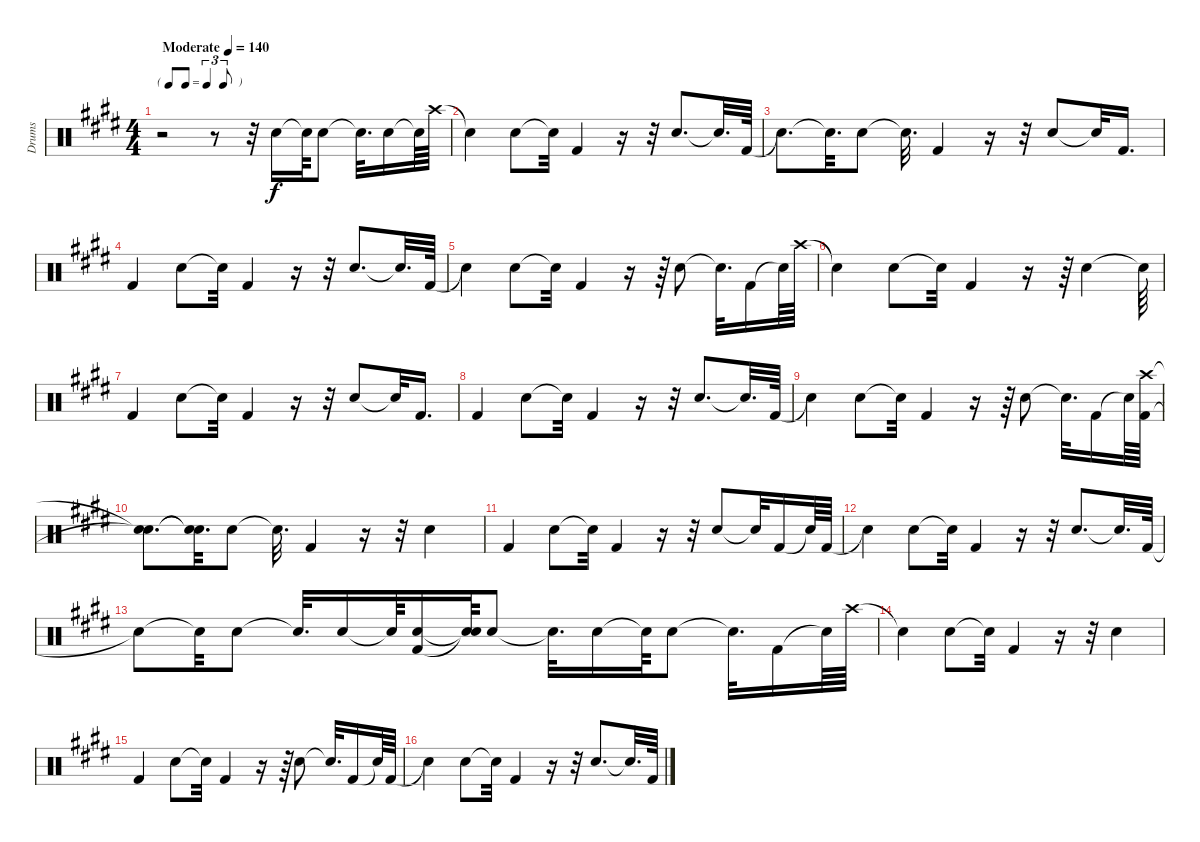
\track ("Drums" "Drums") {instrument percussion}
\staff {score}
\articulation defaults
\ts (4 4)
\tf triplet8th
\tempo (140 "Moderate")
\clef neutral
\ks e
r.2{dy f} r.8 r.32 "Snare (hit) 2".16 "Snare (hit)"{t}.64 "Snare (hit) 2".8 "Snare (hit)"{t}.32{d} "Snare (hit) 2".16 "Snare (hit)"{t}.64 "Crash high (hit)".64 |
"Snare (hit)"{t}.4 "Snare (hit) 2".8 "Snare (hit)"{t}.32 "Kick (hit) 2".4 r.16 r.32 "Snare (hit) 2".8{d} "Snare (hit)"{t}.32{d} "Kick (hit) 2".64 |
"Snare (hit)"{t}.8{d} "Snare (hit)"{t}.32{d} "Snare (hit) 2".8 "Snare (hit)"{t}.32{d} "Kick (hit) 2".4 r.16 r.32 "Snare (hit) 2".8 "Snare (hit)"{t}.32 "Kick (hit) 2".16{d} |
"Kick (hit) 2".4 "Snare (hit) 2".8 "Snare (hit)"{t}.32 "Kick (hit) 2".4 r.16 r.32 "Snare (hit) 2".8{d} "Snare (hit)"{t}.32{d} "Kick (hit) 2".64 |
"Snare (hit)"{t}.4 "Snare (hit) 2".8 "Snare (hit)"{t}.32 "Kick (hit) 2".4 r.16 r.64 "Snare (hit) 2".8 "Snare (hit)"{t}.32{d} "Kick (hit) 2".16 "Snare (hit)"{t}.64 "Crash high (hit)".64 |
"Snare (hit)"{t}.4 "Snare (hit) 2".8 "Snare (hit)"{t}.32 "Kick (hit) 2".4 r.16 r.64 "Snare (hit) 2".4 "Snare (hit)"{t}.64 |
"Kick (hit) 2".4 "Snare (hit) 2".8 "Snare (hit)"{t}.32 "Kick (hit) 2".4 r.16 r.32 "Snare (hit) 2".8 "Snare (hit)"{t}.32 "Kick (hit) 2".16{d} |
"Kick (hit) 2".4 "Snare (hit) 2".8 "Snare (hit)"{t}.32 "Kick (hit) 2".4 r.16 r.32 "Snare (hit) 2".8{d} "Snare (hit)"{t}.32{d} "Kick (hit) 2".64 |
"Snare (hit)"{t}.4 "Snare (hit) 2".8 "Snare (hit)"{t}.32 "Kick (hit) 2".4 r.16 r.64 "Snare (hit) 2".8 "Snare (hit)"{t}.32{d} "Kick (hit) 2".16 "Snare (hit)"{t}.64 ("Kick (hit) 2" "Crash high (hit)").64 |
("Snare (hit)"{t} "Snare (hit)"{t}).8{d} ("Snare (hit)"{t} "Snare (hit)"{t}).32{d} "Snare (hit) 2".8 "Snare (hit)"{t}.32{d} "Kick (hit) 2".4 r.16 r.32 "Snare (hit) 2".4 |
"Kick (hit) 2".4 "Snare (hit) 2".8 "Snare (hit)"{t}.32 "Kick (hit) 2".4 r.16 r.32 "Snare (hit) 2".8 "Snare (hit)"{t}.32 "Kick (hit) 2".16 "Snare (hit)"{t}.64 "Kick (hit) 2".64 |
"Snare (hit)"{t}.4 "Snare (hit) 2".8 "Snare (hit)"{t}.32 "Kick (hit) 2".4 r.16 r.32 "Snare (hit) 2".8{d} "Snare (hit)"{t}.32{d} "Kick (hit) 2".64 |
"Snare (hit)"{t}.8 "Snare (hit)"{t}.32 "Snare (hit) 2".8 "Snare (hit)"{t}.32{d} "Snare (hit) 2".16 "Snare (hit)"{t}.64 ("Kick (hit) 2" "Snare (hit) 2").16 ("Snare (hit)"{t} "Snare (hit)"{t}).64 "Snare (hit) 2".8 "Snare (hit)"{t}.32{d} "Snare (hit) 2".16 "Snare (hit)"{t}.64 "Snare (hit) 2".8 "Snare (hit)"{t}.32{d} "Kick (hit) 2".16 "Snare (hit)"{t}.64 "Crash high (hit)".64 |
"Snare (hit)"{t}.4 "Snare (hit) 2".8 "Snare (hit)"{t}.32 "Kick (hit) 2".4 r.16 r.32 "Snare (hit) 2".4 |
"Kick (hit) 2".4 "Snare (hit) 2".8 "Snare (hit)"{t}.32 "Kick (hit) 2".4 r.16 r.64 "Snare (hit) 2".8 "Snare (hit)"{t}.32{d} "Kick (hit) 2".16 "Snare (hit)"{t}.64 "Kick (hit) 2".64 |
"Snare (hit)"{t}.4 "Snare (hit) 2".8 "Snare (hit)"{t}.32 "Kick (hit) 2".4 r.16 r.32 "Snare (hit) 2".8{d} "Snare (hit)"{t}.32{d} "Kick (hit) 2".64
